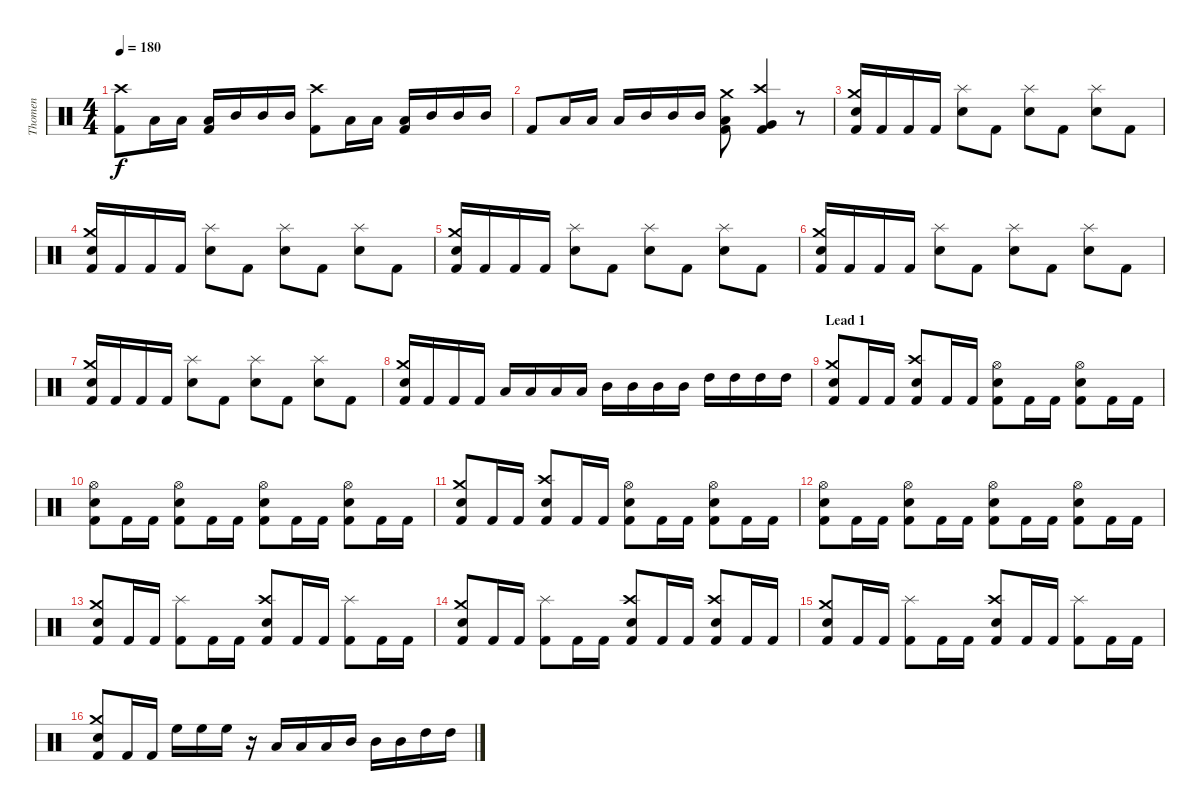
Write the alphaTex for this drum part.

\track ("Thomen" "Thomen") {instrument percussion}
\staff {score}
\articulation defaults
\ts (4 4)
\tempo 180
\clef neutral
\ks c
("Kick (hit) 2" "Crash high (hit)").8{dy f} "Low Tom (hit)".16 "Low Tom (hit)".16 ("Kick (hit) 2" "Low Tom (hit)").16 "Mid Tom (hit)".16 "Mid Tom (hit)".16 "Mid Tom (hit)".16 ("Kick (hit) 2" "Crash high (hit)").8 "Low Tom (hit)".16 "Low Tom (hit)".16 ("Kick (hit) 2" "Low Tom (hit)").16 "Mid Tom (hit)".16 "Mid Tom (hit)".16 "Mid Tom (hit)".16 |
"Kick (hit) 2".8 "Low Tom (hit)".16 "Low Tom (hit)".16 "Low Tom (hit)".16 "Mid Tom (hit)".16 "Mid Tom (hit)".16 "Mid Tom (hit)".16 ("Kick (hit) 2" "Low Floor Tom (hit)" "Crash medium (hit)").8 ("Kick (hit) 2" "Very Low Tom (hit)" "Crash high (hit)").4 r.8 |
("Kick (hit) 2" "Electric Snare (hit)" "Crash medium (hit)").16 "Kick (hit) 2".16 "Kick (hit) 2".16 "Kick (hit) 2".16 ("Electric Snare (hit)" "Splash (hit)").8 "Kick (hit) 2".8 ("Electric Snare (hit)" "Splash (hit)").8 "Kick (hit) 2".8 ("Electric Snare (hit)" "Splash (hit)").8 "Kick (hit) 2".8 |
("Kick (hit) 2" "Electric Snare (hit)" "Crash medium (hit)").16 "Kick (hit) 2".16 "Kick (hit) 2".16 "Kick (hit) 2".16 ("Electric Snare (hit)" "Splash (hit)").8 "Kick (hit) 2".8 ("Electric Snare (hit)" "Splash (hit)").8 "Kick (hit) 2".8 ("Electric Snare (hit)" "Splash (hit)").8 "Kick (hit) 2".8 |
("Kick (hit) 2" "Electric Snare (hit)" "Crash medium (hit)").16 "Kick (hit) 2".16 "Kick (hit) 2".16 "Kick (hit) 2".16 ("Electric Snare (hit)" "Splash (hit)").8 "Kick (hit) 2".8 ("Electric Snare (hit)" "Splash (hit)").8 "Kick (hit) 2".8 ("Electric Snare (hit)" "Splash (hit)").8 "Kick (hit) 2".8 |
("Kick (hit) 2" "Electric Snare (hit)" "Crash medium (hit)").16 "Kick (hit) 2".16 "Kick (hit) 2".16 "Kick (hit) 2".16 ("Electric Snare (hit)" "Splash (hit)").8 "Kick (hit) 2".8 ("Electric Snare (hit)" "Splash (hit)").8 "Kick (hit) 2".8 ("Electric Snare (hit)" "Splash (hit)").8 "Kick (hit) 2".8 |
("Kick (hit) 2" "Electric Snare (hit)" "Crash medium (hit)").16 "Kick (hit) 2".16 "Kick (hit) 2".16 "Kick (hit) 2".16 ("Electric Snare (hit)" "Splash (hit)").8 "Kick (hit) 2".8 ("Electric Snare (hit)" "Splash (hit)").8 "Kick (hit) 2".8 ("Electric Snare (hit)" "Splash (hit)").8 "Kick (hit) 2".8 |
("Kick (hit) 2" "Electric Snare (hit)" "Crash medium (hit)").16 "Kick (hit) 2".16 "Kick (hit) 2".16 "Kick (hit) 2".16 "Low Tom (hit)".16 "Low Tom (hit)".16 "Low Tom (hit)".16 "Low Tom (hit)".16 "Mid Tom (hit)".16 "Mid Tom (hit)".16 "Mid Tom (hit)".16 "Mid Tom (hit)".16 "High Tom (hit)".16 "High Tom (hit)".16 "High Tom (hit)".16 "High Tom (hit)".16 |
\section ("" "Lead 1")
("Kick (hit) 2" "Electric Snare (hit)" "Crash medium (hit)").8 "Kick (hit) 2".16 "Kick (hit) 2".16 ("Kick (hit) 2" "Electric Snare (hit)" "Crash high (hit)").8 "Kick (hit) 2".16 "Kick (hit) 2".16 ("Kick (hit) 2" "Electric Snare (hit)" "Hi-Hat (open)").8 "Kick (hit) 2".16 "Kick (hit) 2".16 ("Kick (hit) 2" "Electric Snare (hit)" "Hi-Hat (open)").8 "Kick (hit) 2".16 "Kick (hit) 2".16 |
("Kick (hit) 2" "Electric Snare (hit)" "Hi-Hat (open)").8 "Kick (hit) 2".16 "Kick (hit) 2".16 ("Kick (hit) 2" "Electric Snare (hit)" "Hi-Hat (open)").8 "Kick (hit) 2".16 "Kick (hit) 2".16 ("Kick (hit) 2" "Electric Snare (hit)" "Hi-Hat (open)").8 "Kick (hit) 2".16 "Kick (hit) 2".16 ("Kick (hit) 2" "Electric Snare (hit)" "Hi-Hat (open)").8 "Kick (hit) 2".16 "Kick (hit) 2".16 |
("Kick (hit) 2" "Electric Snare (hit)" "Crash medium (hit)").8 "Kick (hit) 2".16 "Kick (hit) 2".16 ("Kick (hit) 2" "Electric Snare (hit)" "Crash high (hit)").8 "Kick (hit) 2".16 "Kick (hit) 2".16 ("Kick (hit) 2" "Electric Snare (hit)" "Hi-Hat (open)").8 "Kick (hit) 2".16 "Kick (hit) 2".16 ("Kick (hit) 2" "Electric Snare (hit)" "Hi-Hat (open)").8 "Kick (hit) 2".16 "Kick (hit) 2".16 |
("Kick (hit) 2" "Electric Snare (hit)" "Hi-Hat (open)").8 "Kick (hit) 2".16 "Kick (hit) 2".16 ("Kick (hit) 2" "Electric Snare (hit)" "Hi-Hat (open)").8 "Kick (hit) 2".16 "Kick (hit) 2".16 ("Kick (hit) 2" "Electric Snare (hit)" "Hi-Hat (open)").8 "Kick (hit) 2".16 "Kick (hit) 2".16 ("Kick (hit) 2" "Electric Snare (hit)" "Hi-Hat (open)").8 "Kick (hit) 2".16 "Kick (hit) 2".16 |
("Kick (hit) 2" "Electric Snare (hit)" "Crash medium (hit)").8 "Kick (hit) 2".16 "Kick (hit) 2".16 ("Kick (hit) 2" "Splash (hit)").8 "Kick (hit) 2".16 "Kick (hit) 2".16 ("Kick (hit) 2" "Electric Snare (hit)" "Crash high (hit)").8 "Kick (hit) 2".16 "Kick (hit) 2".16 ("Kick (hit) 2" "Splash (hit)").8 "Kick (hit) 2".16 "Kick (hit) 2".16 |
("Kick (hit) 2" "Electric Snare (hit)" "Crash medium (hit)").8 "Kick (hit) 2".16 "Kick (hit) 2".16 ("Kick (hit) 2" "Splash (hit)").8 "Kick (hit) 2".16 "Kick (hit) 2".16 ("Kick (hit) 2" "Electric Snare (hit)" "Crash high (hit)").8 "Kick (hit) 2".16 "Kick (hit) 2".16 ("Kick (hit) 2" "Electric Snare (hit)" "Crash high (hit)").8 "Kick (hit) 2".16 "Kick (hit) 2".16 |
("Kick (hit) 2" "Electric Snare (hit)" "Crash medium (hit)").8 "Kick (hit) 2".16 "Kick (hit) 2".16 ("Kick (hit) 2" "Splash (hit)").8 "Kick (hit) 2".16 "Kick (hit) 2".16 ("Kick (hit) 2" "Electric Snare (hit)" "Crash high (hit)").8 "Kick (hit) 2".16 "Kick (hit) 2".16 ("Kick (hit) 2" "Splash (hit)").8 "Kick (hit) 2".16 "Kick (hit) 2".16 |
("Kick (hit) 2" "Electric Snare (hit)" "Crash medium (hit)").8 "Kick (hit) 2".16 "Kick (hit) 2".16 "High Floor Tom (hit)".16 "High Floor Tom (hit)".16 "High Floor Tom (hit)".16 r.16 "Low Tom (hit)".16 "Low Tom (hit)".16 "Low Tom (hit)".16 "Mid Tom (hit)".16 "Mid Tom (hit)".16 "Mid Tom (hit)".16 "High Tom (hit)".16 "High Tom (hit)".16
